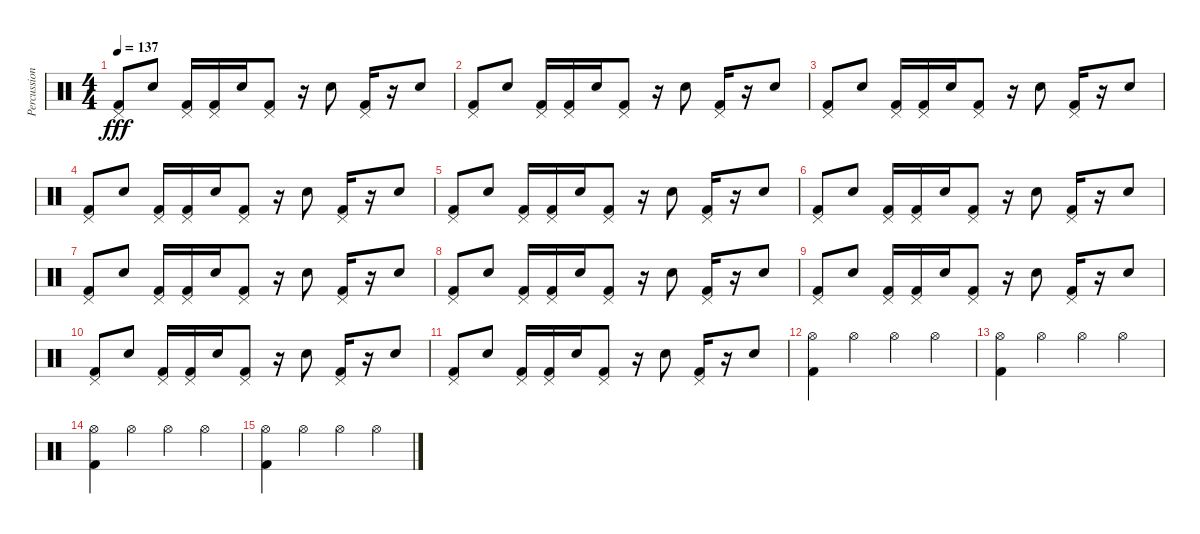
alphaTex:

\track ("Percussion" "Percussion") {instrument percussion}
\staff {score}
\articulation defaults
\ts (4 4)
\tempo 137
\clef neutral
\ks c
("Pedal Hi-Hat (hit)" "Kick (hit) 2").8{dy fff} "Snare (hit) 2".8 ("Pedal Hi-Hat (hit)" "Kick (hit) 2").16 ("Pedal Hi-Hat (hit)" "Kick (hit) 2").16 "Snare (hit) 2".16 ("Pedal Hi-Hat (hit)" "Kick (hit) 2").8 r.16 "Snare (hit) 2".8 ("Pedal Hi-Hat (hit)" "Kick (hit) 2").16 r.16 "Snare (hit) 2".8 |
("Pedal Hi-Hat (hit)" "Kick (hit) 2").8 "Snare (hit) 2".8 ("Pedal Hi-Hat (hit)" "Kick (hit) 2").16 ("Pedal Hi-Hat (hit)" "Kick (hit) 2").16 "Snare (hit) 2".16 ("Pedal Hi-Hat (hit)" "Kick (hit) 2").8 r.16 "Snare (hit) 2".8 ("Pedal Hi-Hat (hit)" "Kick (hit) 2").16 r.16 "Snare (hit) 2".8 |
("Pedal Hi-Hat (hit)" "Kick (hit) 2").8 "Snare (hit) 2".8 ("Pedal Hi-Hat (hit)" "Kick (hit) 2").16 ("Pedal Hi-Hat (hit)" "Kick (hit) 2").16 "Snare (hit) 2".16 ("Pedal Hi-Hat (hit)" "Kick (hit) 2").8 r.16 "Snare (hit) 2".8 ("Pedal Hi-Hat (hit)" "Kick (hit) 2").16 r.16 "Snare (hit) 2".8 |
("Pedal Hi-Hat (hit)" "Kick (hit) 2").8 "Snare (hit) 2".8 ("Pedal Hi-Hat (hit)" "Kick (hit) 2").16 ("Pedal Hi-Hat (hit)" "Kick (hit) 2").16 "Snare (hit) 2".16 ("Pedal Hi-Hat (hit)" "Kick (hit) 2").8 r.16 "Snare (hit) 2".8 ("Pedal Hi-Hat (hit)" "Kick (hit) 2").16 r.16 "Snare (hit) 2".8 |
("Pedal Hi-Hat (hit)" "Kick (hit) 2").8 "Snare (hit) 2".8 ("Pedal Hi-Hat (hit)" "Kick (hit) 2").16 ("Pedal Hi-Hat (hit)" "Kick (hit) 2").16 "Snare (hit) 2".16 ("Pedal Hi-Hat (hit)" "Kick (hit) 2").8 r.16 "Snare (hit) 2".8 ("Pedal Hi-Hat (hit)" "Kick (hit) 2").16 r.16 "Snare (hit) 2".8 |
("Pedal Hi-Hat (hit)" "Kick (hit) 2").8 "Snare (hit) 2".8 ("Pedal Hi-Hat (hit)" "Kick (hit) 2").16 ("Pedal Hi-Hat (hit)" "Kick (hit) 2").16 "Snare (hit) 2".16 ("Pedal Hi-Hat (hit)" "Kick (hit) 2").8 r.16 "Snare (hit) 2".8 ("Pedal Hi-Hat (hit)" "Kick (hit) 2").16 r.16 "Snare (hit) 2".8 |
("Pedal Hi-Hat (hit)" "Kick (hit) 2").8 "Snare (hit) 2".8 ("Pedal Hi-Hat (hit)" "Kick (hit) 2").16 ("Pedal Hi-Hat (hit)" "Kick (hit) 2").16 "Snare (hit) 2".16 ("Pedal Hi-Hat (hit)" "Kick (hit) 2").8 r.16 "Snare (hit) 2".8 ("Pedal Hi-Hat (hit)" "Kick (hit) 2").16 r.16 "Snare (hit) 2".8 |
("Pedal Hi-Hat (hit)" "Kick (hit) 2").8 "Snare (hit) 2".8 ("Pedal Hi-Hat (hit)" "Kick (hit) 2").16 ("Pedal Hi-Hat (hit)" "Kick (hit) 2").16 "Snare (hit) 2".16 ("Pedal Hi-Hat (hit)" "Kick (hit) 2").8 r.16 "Snare (hit) 2".8 ("Pedal Hi-Hat (hit)" "Kick (hit) 2").16 r.16 "Snare (hit) 2".8 |
("Pedal Hi-Hat (hit)" "Kick (hit) 2").8 "Snare (hit) 2".8 ("Pedal Hi-Hat (hit)" "Kick (hit) 2").16 ("Pedal Hi-Hat (hit)" "Kick (hit) 2").16 "Snare (hit) 2".16 ("Pedal Hi-Hat (hit)" "Kick (hit) 2").8 r.16 "Snare (hit) 2".8 ("Pedal Hi-Hat (hit)" "Kick (hit) 2").16 r.16 "Snare (hit) 2".8 |
("Pedal Hi-Hat (hit)" "Kick (hit) 2").8 "Snare (hit) 2".8 ("Pedal Hi-Hat (hit)" "Kick (hit) 2").16 ("Pedal Hi-Hat (hit)" "Kick (hit) 2").16 "Snare (hit) 2".16 ("Pedal Hi-Hat (hit)" "Kick (hit) 2").8 r.16 "Snare (hit) 2".8 ("Pedal Hi-Hat (hit)" "Kick (hit) 2").16 r.16 "Snare (hit) 2".8 |
("Pedal Hi-Hat (hit)" "Kick (hit) 2").8 "Snare (hit) 2".8 ("Pedal Hi-Hat (hit)" "Kick (hit) 2").16 ("Pedal Hi-Hat (hit)" "Kick (hit) 2").16 "Snare (hit) 2".16 ("Pedal Hi-Hat (hit)" "Kick (hit) 2").8 r.16 "Snare (hit) 2".8 ("Pedal Hi-Hat (hit)" "Kick (hit) 2").16 r.16 "Snare (hit) 2".8 |
("Hi-Hat (open)" "Kick (hit) 2").4 "Hi-Hat (open)".4 "Hi-Hat (open)".4 "Hi-Hat (open)".4 |
("Hi-Hat (open)" "Kick (hit) 2").4 "Hi-Hat (open)".4 "Hi-Hat (open)".4 "Hi-Hat (open)".4 |
("Hi-Hat (open)" "Kick (hit) 2").4 "Hi-Hat (open)".4 "Hi-Hat (open)".4 "Hi-Hat (open)".4 |
("Hi-Hat (open)" "Kick (hit) 2").4 "Hi-Hat (open)".4 "Hi-Hat (open)".4 "Hi-Hat (open)".4
